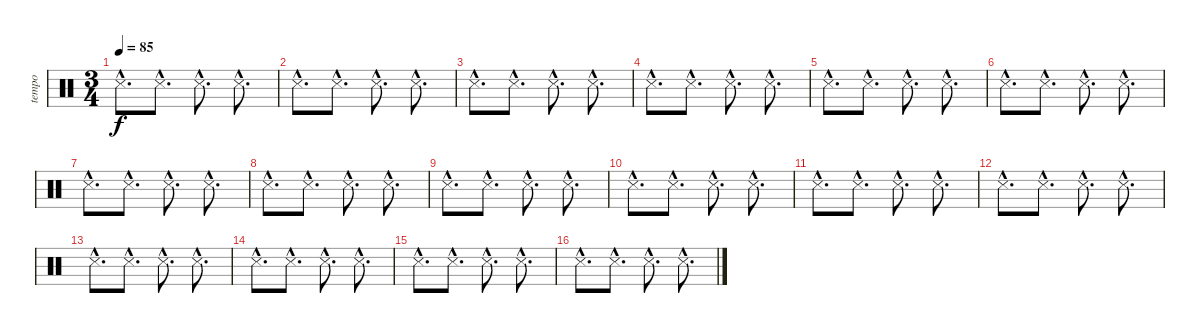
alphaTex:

\track ("tempo" "tempo") {instrument percussion}
\staff {score}
\articulation defaults
\ts (3 4)
\tempo 85
\clef neutral
\ks c "Metronome (hit)"{hac}.8{d dy f} "Metronome (hit)"{hac}.8{d} "Metronome (hit)"{hac}.8{d} "Metronome (hit)"{hac}.8{d}
|
"Metronome (hit)"{hac}.8{d} "Metronome (hit)"{hac}.8{d} "Metronome (hit)"{hac}.8{d} "Metronome (hit)"{hac}.8{d} |
"Metronome (hit)"{hac}.8{d} "Metronome (hit)"{hac}.8{d} "Metronome (hit)"{hac}.8{d} "Metronome (hit)"{hac}.8{d} |
"Metronome (hit)"{hac}.8{d} "Metronome (hit)"{hac}.8{d} "Metronome (hit)"{hac}.8{d} "Metronome (hit)"{hac}.8{d} |
"Metronome (hit)"{hac}.8{d} "Metronome (hit)"{hac}.8{d} "Metronome (hit)"{hac}.8{d} "Metronome (hit)"{hac}.8{d} |
"Metronome (hit)"{hac}.8{d} "Metronome (hit)"{hac}.8{d} "Metronome (hit)"{hac}.8{d} "Metronome (hit)"{hac}.8{d} |
"Metronome (hit)"{hac}.8{d} "Metronome (hit)"{hac}.8{d} "Metronome (hit)"{hac}.8{d} "Metronome (hit)"{hac}.8{d} |
"Metronome (hit)"{hac}.8{d} "Metronome (hit)"{hac}.8{d} "Metronome (hit)"{hac}.8{d} "Metronome (hit)"{hac}.8{d} |
"Metronome (hit)"{hac}.8{d} "Metronome (hit)"{hac}.8{d} "Metronome (hit)"{hac}.8{d} "Metronome (hit)"{hac}.8{d} |
"Metronome (hit)"{hac}.8{d} "Metronome (hit)"{hac}.8{d} "Metronome (hit)"{hac}.8{d} "Metronome (hit)"{hac}.8{d} |
"Metronome (hit)"{hac}.8{d} "Metronome (hit)"{hac}.8{d} "Metronome (hit)"{hac}.8{d} "Metronome (hit)"{hac}.8{d} |
"Metronome (hit)"{hac}.8{d} "Metronome (hit)"{hac}.8{d} "Metronome (hit)"{hac}.8{d} "Metronome (hit)"{hac}.8{d} |
"Metronome (hit)"{hac}.8{d} "Metronome (hit)"{hac}.8{d} "Metronome (hit)"{hac}.8{d} "Metronome (hit)"{hac}.8{d} |
"Metronome (hit)"{hac}.8{d} "Metronome (hit)"{hac}.8{d} "Metronome (hit)"{hac}.8{d} "Metronome (hit)"{hac}.8{d} |
"Metronome (hit)"{hac}.8{d} "Metronome (hit)"{hac}.8{d} "Metronome (hit)"{hac}.8{d} "Metronome (hit)"{hac}.8{d} |
"Metronome (hit)"{hac}.8{d} "Metronome (hit)"{hac}.8{d} "Metronome (hit)"{hac}.8{d} "Metronome (hit)"{hac}.8{d}
